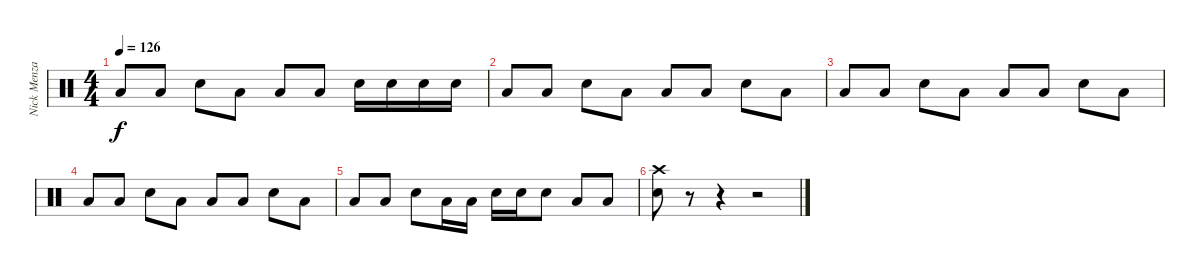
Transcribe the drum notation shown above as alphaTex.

\track ("Nick Menza" "Nick Menza") {instrument percussion}
\staff {score}
\articulation defaults
\ts (4 4)
\tempo 126
\clef neutral
\ks c "Low Tom (hit)".8{dy f} "Low Tom (hit)".8 "Electric Snare (hit)".8 "Low Tom (hit)".8 "Low Tom (hit)".8 "Low Tom (hit)".8 "Electric Snare (hit)".16 "Electric Snare (hit)".16 "Electric Snare (hit)".16 "Electric Snare (hit)".16
|
"Low Tom (hit)".8 "Low Tom (hit)".8 "Electric Snare (hit)".8 "Low Tom (hit)".8 "Low Tom (hit)".8 "Low Tom (hit)".8 "Electric Snare (hit)".8 "Low Tom (hit)".8 |
"Low Tom (hit)".8 "Low Tom (hit)".8 "Electric Snare (hit)".8 "Low Tom (hit)".8 "Low Tom (hit)".8 "Low Tom (hit)".8 "Electric Snare (hit)".8 "Low Tom (hit)".8 |
"Low Tom (hit)".8 "Low Tom (hit)".8 "Electric Snare (hit)".8 "Low Tom (hit)".8 "Low Tom (hit)".8 "Low Tom (hit)".8 "Electric Snare (hit)".8 "Low Tom (hit)".8 |
"Low Tom (hit)".8 "Low Tom (hit)".8 "Electric Snare (hit)".8 "Low Tom (hit)".16 "Low Tom (hit)".16 "Electric Snare (hit)".16 "Electric Snare (hit)".16 "Electric Snare (hit)".8 "Low Tom (hit)".8 "Low Tom (hit)".8 |
("Electric Snare (hit)" "Crash high (hit)").8 r.8 r.4 r.2
